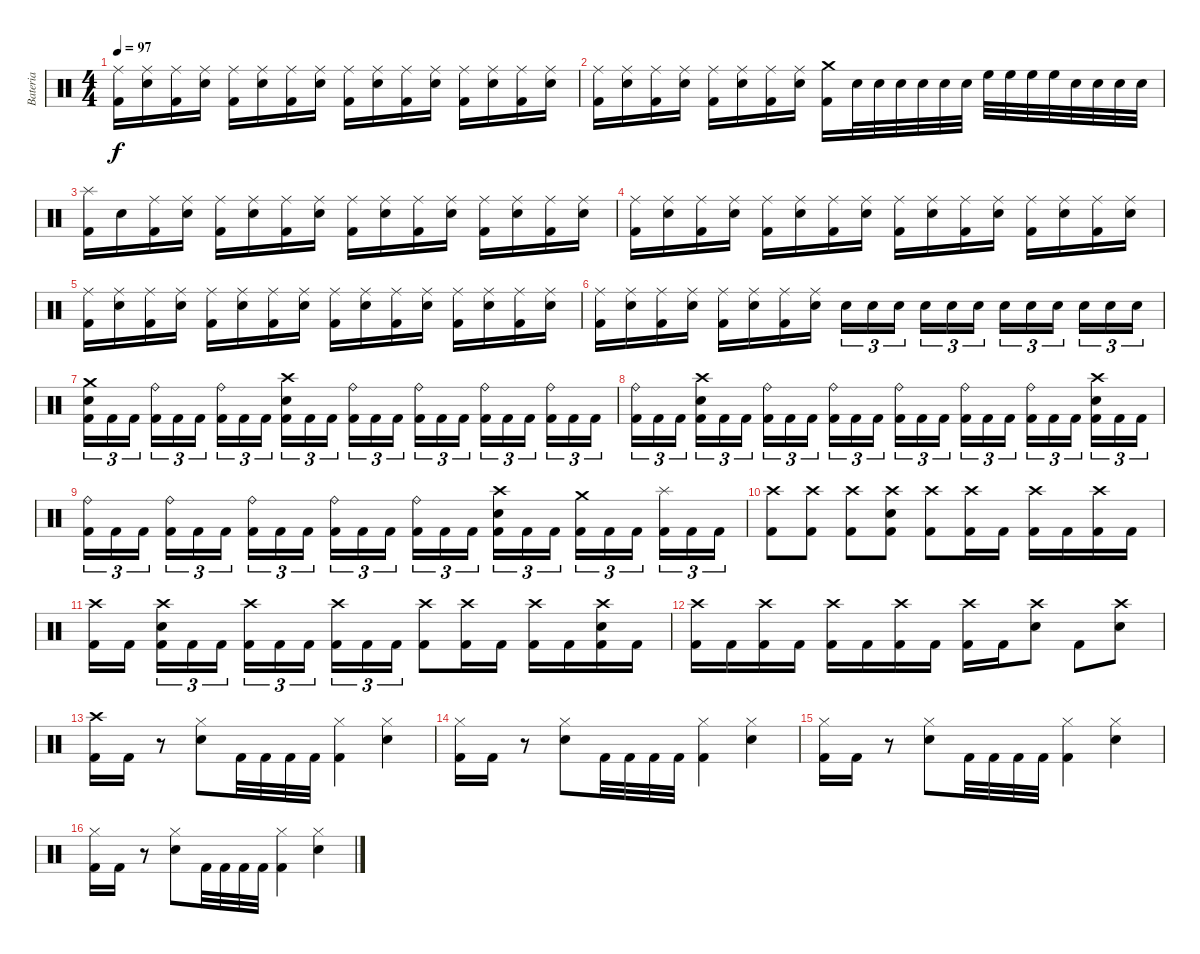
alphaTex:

\track ("Bateria" "Bateria") {instrument percussion}
\staff {score}
\articulation defaults
\ts (4 4)
\tempo 97
\clef neutral
\ks c
("Ride (middle)" "Kick (hit) 2").16{dy f} ("Ride (middle)" "Electric Snare (hit)").16 ("Ride (middle)" "Kick (hit) 2").16 ("Ride (middle)" "Electric Snare (hit)").16 ("Ride (middle)" "Kick (hit) 2").16 ("Ride (middle)" "Electric Snare (hit)").16 ("Ride (middle)" "Kick (hit) 2").16 ("Ride (middle)" "Electric Snare (hit)").16 ("Ride (middle)" "Kick (hit) 2").16 ("Ride (middle)" "Electric Snare (hit)").16 ("Ride (middle)" "Kick (hit) 2").16 ("Ride (middle)" "Electric Snare (hit)").16 ("Ride (middle)" "Kick (hit) 2").16 ("Ride (middle)" "Electric Snare (hit)").16 ("Ride (middle)" "Kick (hit) 2").16 ("Ride (middle)" "Electric Snare (hit)").16 |
("Ride (middle)" "Kick (hit) 2").16 ("Ride (middle)" "Electric Snare (hit)").16 ("Ride (middle)" "Kick (hit) 2").16 ("Ride (middle)" "Electric Snare (hit)").16 ("Ride (middle)" "Kick (hit) 2").16 ("Ride (middle)" "Electric Snare (hit)").16 ("Ride (middle)" "Kick (hit) 2").16 ("Ride (middle)" "Electric Snare (hit)").16 ("Crash medium (hit)" "Kick (hit) 2").16 "Electric Snare (hit)".32 "Electric Snare (hit)".32 "Electric Snare (hit)".32 "Electric Snare (hit)".32 "Electric Snare (hit)".32 "Electric Snare (hit)".32 "High Floor Tom (hit)".32 "High Floor Tom (hit)".32 "High Floor Tom (hit)".32 "High Floor Tom (hit)".32 "Electric Snare (hit)".32 "Electric Snare (hit)".32 "Electric Snare (hit)".32 "Electric Snare (hit)".32 |
("Splash (hit)" "Kick (hit) 2").16 "Electric Snare (hit)".16 ("Ride (middle)" "Kick (hit) 2").16 ("Ride (middle)" "Electric Snare (hit)").16 ("Ride (middle)" "Kick (hit) 2").16 ("Ride (middle)" "Electric Snare (hit)").16 ("Ride (middle)" "Kick (hit) 2").16 ("Ride (middle)" "Electric Snare (hit)").16 ("Ride (middle)" "Kick (hit) 2").16 ("Ride (middle)" "Electric Snare (hit)").16 ("Ride (middle)" "Kick (hit) 2").16 ("Ride (middle)" "Electric Snare (hit)").16 ("Ride (middle)" "Kick (hit) 2").16 ("Ride (middle)" "Electric Snare (hit)").16 ("Ride (middle)" "Kick (hit) 2").16 ("Ride (middle)" "Electric Snare (hit)").16 |
("Ride (middle)" "Kick (hit) 2").16 ("Ride (middle)" "Electric Snare (hit)").16 ("Ride (middle)" "Kick (hit) 2").16 ("Ride (middle)" "Electric Snare (hit)").16 ("Ride (middle)" "Kick (hit) 2").16 ("Ride (middle)" "Electric Snare (hit)").16 ("Ride (middle)" "Kick (hit) 2").16 ("Ride (middle)" "Electric Snare (hit)").16 ("Ride (middle)" "Kick (hit) 2").16 ("Ride (middle)" "Electric Snare (hit)").16 ("Ride (middle)" "Kick (hit) 2").16 ("Ride (middle)" "Electric Snare (hit)").16 ("Ride (middle)" "Kick (hit) 2").16 ("Ride (middle)" "Electric Snare (hit)").16 ("Ride (middle)" "Kick (hit) 2").16 ("Ride (middle)" "Electric Snare (hit)").16 |
("Ride (middle)" "Kick (hit) 2").16 ("Ride (middle)" "Electric Snare (hit)").16 ("Ride (middle)" "Kick (hit) 2").16 ("Ride (middle)" "Electric Snare (hit)").16 ("Ride (middle)" "Kick (hit) 2").16 ("Ride (middle)" "Electric Snare (hit)").16 ("Ride (middle)" "Kick (hit) 2").16 ("Ride (middle)" "Electric Snare (hit)").16 ("Ride (middle)" "Kick (hit) 2").16 ("Ride (middle)" "Electric Snare (hit)").16 ("Ride (middle)" "Kick (hit) 2").16 ("Ride (middle)" "Electric Snare (hit)").16 ("Ride (middle)" "Kick (hit) 2").16 ("Ride (middle)" "Electric Snare (hit)").16 ("Ride (middle)" "Kick (hit) 2").16 ("Ride (middle)" "Electric Snare (hit)").16 |
("Ride (middle)" "Kick (hit) 2").16 ("Ride (middle)" "Electric Snare (hit)").16 ("Ride (middle)" "Kick (hit) 2").16 ("Ride (middle)" "Electric Snare (hit)").16 ("Ride (middle)" "Kick (hit) 2").16 ("Ride (middle)" "Electric Snare (hit)").16 ("Ride (middle)" "Kick (hit) 2").16 ("Ride (middle)" "Electric Snare (hit)").16 "Electric Snare (hit)".16{tu (3 2)} "Electric Snare (hit)".16{tu (3 2)} "Electric Snare (hit)".16{tu (3 2) beam splitsecondary} "Electric Snare (hit)".16{tu (3 2)} "Electric Snare (hit)".16{tu (3 2)} "Electric Snare (hit)".16{tu (3 2)} "Electric Snare (hit)".16{tu (3 2)} "Electric Snare (hit)".16{tu (3 2)} "Electric Snare (hit)".16{tu (3 2) beam splitsecondary} "Electric Snare (hit)".16{tu (3 2)} "Electric Snare (hit)".16{tu (3 2)} "Electric Snare (hit)".16{tu (3 2)} |
("Crash medium (hit)" "Electric Snare (hit)" "Kick (hit) 2").16{tu (3 2)} "Kick (hit) 2".16{tu (3 2)} "Kick (hit) 2".16{tu (3 2) beam splitsecondary} ("Ride (bell)" "Kick (hit) 2").16{tu (3 2)} "Kick (hit) 2".16{tu (3 2)} "Kick (hit) 2".16{tu (3 2)} ("Ride (bell)" "Kick (hit) 2").16{tu (3 2)} "Kick (hit) 2".16{tu (3 2)} "Kick (hit) 2".16{tu (3 2) beam splitsecondary} ("Crash high (hit)" "Electric Snare (hit)" "Kick (hit) 2").16{tu (3 2)} "Kick (hit) 2".16{tu (3 2)} "Kick (hit) 2".16{tu (3 2)} ("Ride (bell)" "Kick (hit) 2").16{tu (3 2)} "Kick (hit) 2".16{tu (3 2)} "Kick (hit) 2".16{tu (3 2) beam splitsecondary} ("Ride (bell)" "Kick (hit) 2").16{tu (3 2)} "Kick (hit) 2".16{tu (3 2)} "Kick (hit) 2".16{tu (3 2)} ("Ride (bell)" "Kick (hit) 2").16{tu (3 2)} "Kick (hit) 2".16{tu (3 2)} "Kick (hit) 2".16{tu (3 2) beam splitsecondary} ("Ride (bell)" "Kick (hit) 2").16{tu (3 2)} "Kick (hit) 2".16{tu (3 2)} "Kick (hit) 2".16{tu (3 2)} |
("Ride (bell)" "Kick (hit) 2").16{tu (3 2)} "Kick (hit) 2".16{tu (3 2)} "Kick (hit) 2".16{tu (3 2) beam splitsecondary} ("Crash high (hit)" "Electric Snare (hit)" "Kick (hit) 2").16{tu (3 2)} "Kick (hit) 2".16{tu (3 2)} "Kick (hit) 2".16{tu (3 2)} ("Ride (bell)" "Kick (hit) 2").16{tu (3 2)} "Kick (hit) 2".16{tu (3 2)} "Kick (hit) 2".16{tu (3 2) beam splitsecondary} ("Ride (bell)" "Kick (hit) 2").16{tu (3 2)} "Kick (hit) 2".16{tu (3 2)} "Kick (hit) 2".16{tu (3 2)} ("Ride (bell)" "Kick (hit) 2").16{tu (3 2)} "Kick (hit) 2".16{tu (3 2)} "Kick (hit) 2".16{tu (3 2) beam splitsecondary} ("Ride (bell)" "Kick (hit) 2").16{tu (3 2)} "Kick (hit) 2".16{tu (3 2)} "Kick (hit) 2".16{tu (3 2)} ("Ride (bell)" "Kick (hit) 2").16{tu (3 2)} "Kick (hit) 2".16{tu (3 2)} "Kick (hit) 2".16{tu (3 2) beam splitsecondary} ("Crash high (hit)" "Electric Snare (hit)" "Kick (hit) 2").16{tu (3 2)} "Kick (hit) 2".16{tu (3 2)} "Kick (hit) 2".16{tu (3 2)} |
("Ride (bell)" "Kick (hit) 2").16{tu (3 2)} "Kick (hit) 2".16{tu (3 2)} "Kick (hit) 2".16{tu (3 2) beam splitsecondary} ("Ride (bell)" "Kick (hit) 2").16{tu (3 2)} "Kick (hit) 2".16{tu (3 2)} "Kick (hit) 2".16{tu (3 2)} ("Ride (bell)" "Kick (hit) 2").16{tu (3 2)} "Kick (hit) 2".16{tu (3 2)} "Kick (hit) 2".16{tu (3 2) beam splitsecondary} ("Ride (bell)" "Kick (hit) 2").16{tu (3 2)} "Kick (hit) 2".16{tu (3 2)} "Kick (hit) 2".16{tu (3 2)} ("Ride (bell)" "Kick (hit) 2").16{tu (3 2)} "Kick (hit) 2".16{tu (3 2)} "Kick (hit) 2".16{tu (3 2) beam splitsecondary} ("Crash high (hit)" "Electric Snare (hit)" "Kick (hit) 2").16{tu (3 2)} "Kick (hit) 2".16{tu (3 2)} "Kick (hit) 2".16{tu (3 2)} ("Crash medium (hit)" "Kick (hit) 2").16{tu (3 2)} "Kick (hit) 2".16{tu (3 2)} "Kick (hit) 2".16{tu (3 2) beam splitsecondary} ("Splash (hit)" "Kick (hit) 2").16{tu (3 2)} "Kick (hit) 2".16{tu (3 2)} "Kick (hit) 2".16{tu (3 2)} |
("Crash high (hit)" "Kick (hit) 2").8 ("Crash high (hit)" "Kick (hit) 2").8 ("Crash high (hit)" "Kick (hit) 2").8 ("Crash high (hit)" "Electric Snare (hit)" "Kick (hit) 2").8 ("Crash high (hit)" "Kick (hit) 2").8 ("Crash high (hit)" "Kick (hit) 2").16 "Kick (hit) 2".16 ("Crash high (hit)" "Kick (hit) 2").16 "Kick (hit) 2".16 ("Crash high (hit)" "Kick (hit) 2").16 "Kick (hit) 2".16 |
("Crash high (hit)" "Kick (hit) 2").16 "Kick (hit) 2".16{beam splitsecondary} ("Crash high (hit)" "Electric Snare (hit)" "Kick (hit) 2").16{tu (3 2)} "Kick (hit) 2".16{tu (3 2)} "Kick (hit) 2".16{tu (3 2)} ("Crash high (hit)" "Kick (hit) 2").16{tu (3 2)} "Kick (hit) 2".16{tu (3 2)} "Kick (hit) 2".16{tu (3 2) beam splitsecondary} ("Crash high (hit)" "Kick (hit) 2").16{tu (3 2)} "Kick (hit) 2".16{tu (3 2)} "Kick (hit) 2".16{tu (3 2)} ("Crash high (hit)" "Kick (hit) 2").8 ("Crash high (hit)" "Kick (hit) 2").16 "Kick (hit) 2".16 ("Crash high (hit)" "Kick (hit) 2").16 "Kick (hit) 2".16 ("Crash high (hit)" "Electric Snare (hit)" "Kick (hit) 2").16 "Kick (hit) 2".16 |
("Crash high (hit)" "Kick (hit) 2").16 "Kick (hit) 2".16 ("Crash high (hit)" "Kick (hit) 2").16 "Kick (hit) 2".16 ("Crash high (hit)" "Kick (hit) 2").16 "Kick (hit) 2".16 ("Crash high (hit)" "Kick (hit) 2").16 "Kick (hit) 2".16 ("Crash high (hit)" "Kick (hit) 2").16 "Kick (hit) 2".16 ("Crash high (hit)" "Electric Snare (hit)").8 "Kick (hit) 2".8 ("Crash high (hit)" "Electric Snare (hit)").8 |
("Crash high (hit)" "Kick (hit) 2").16 "Kick (hit) 2".16 r.8 ("Hi-Hat (closed)" "Electric Snare (hit)").8 "Kick (hit) 2".32 "Kick (hit) 2".32 "Kick (hit) 2".32 "Kick (hit) 2".32 ("Hi-Hat (closed)" "Kick (hit) 2").4 ("Hi-Hat (closed)" "Electric Snare (hit)").4 |
("Hi-Hat (closed)" "Kick (hit) 2").16 "Kick (hit) 2".16 r.8 ("Hi-Hat (closed)" "Electric Snare (hit)").8 "Kick (hit) 2".32 "Kick (hit) 2".32 "Kick (hit) 2".32 "Kick (hit) 2".32 ("Hi-Hat (closed)" "Kick (hit) 2").4 ("Hi-Hat (closed)" "Electric Snare (hit)").4 |
("Hi-Hat (closed)" "Kick (hit) 2").16 "Kick (hit) 2".16 r.8 ("Hi-Hat (closed)" "Electric Snare (hit)").8 "Kick (hit) 2".32 "Kick (hit) 2".32 "Kick (hit) 2".32 "Kick (hit) 2".32 ("Hi-Hat (closed)" "Kick (hit) 2").4 ("Hi-Hat (closed)" "Electric Snare (hit)").4 |
("Hi-Hat (closed)" "Kick (hit) 2").16 "Kick (hit) 2".16 r.8 ("Hi-Hat (closed)" "Electric Snare (hit)").8 "Kick (hit) 2".32 "Kick (hit) 2".32 "Kick (hit) 2".32 "Kick (hit) 2".32 ("Hi-Hat (closed)" "Kick (hit) 2").4 ("Hi-Hat (closed)" "Electric Snare (hit)").4
